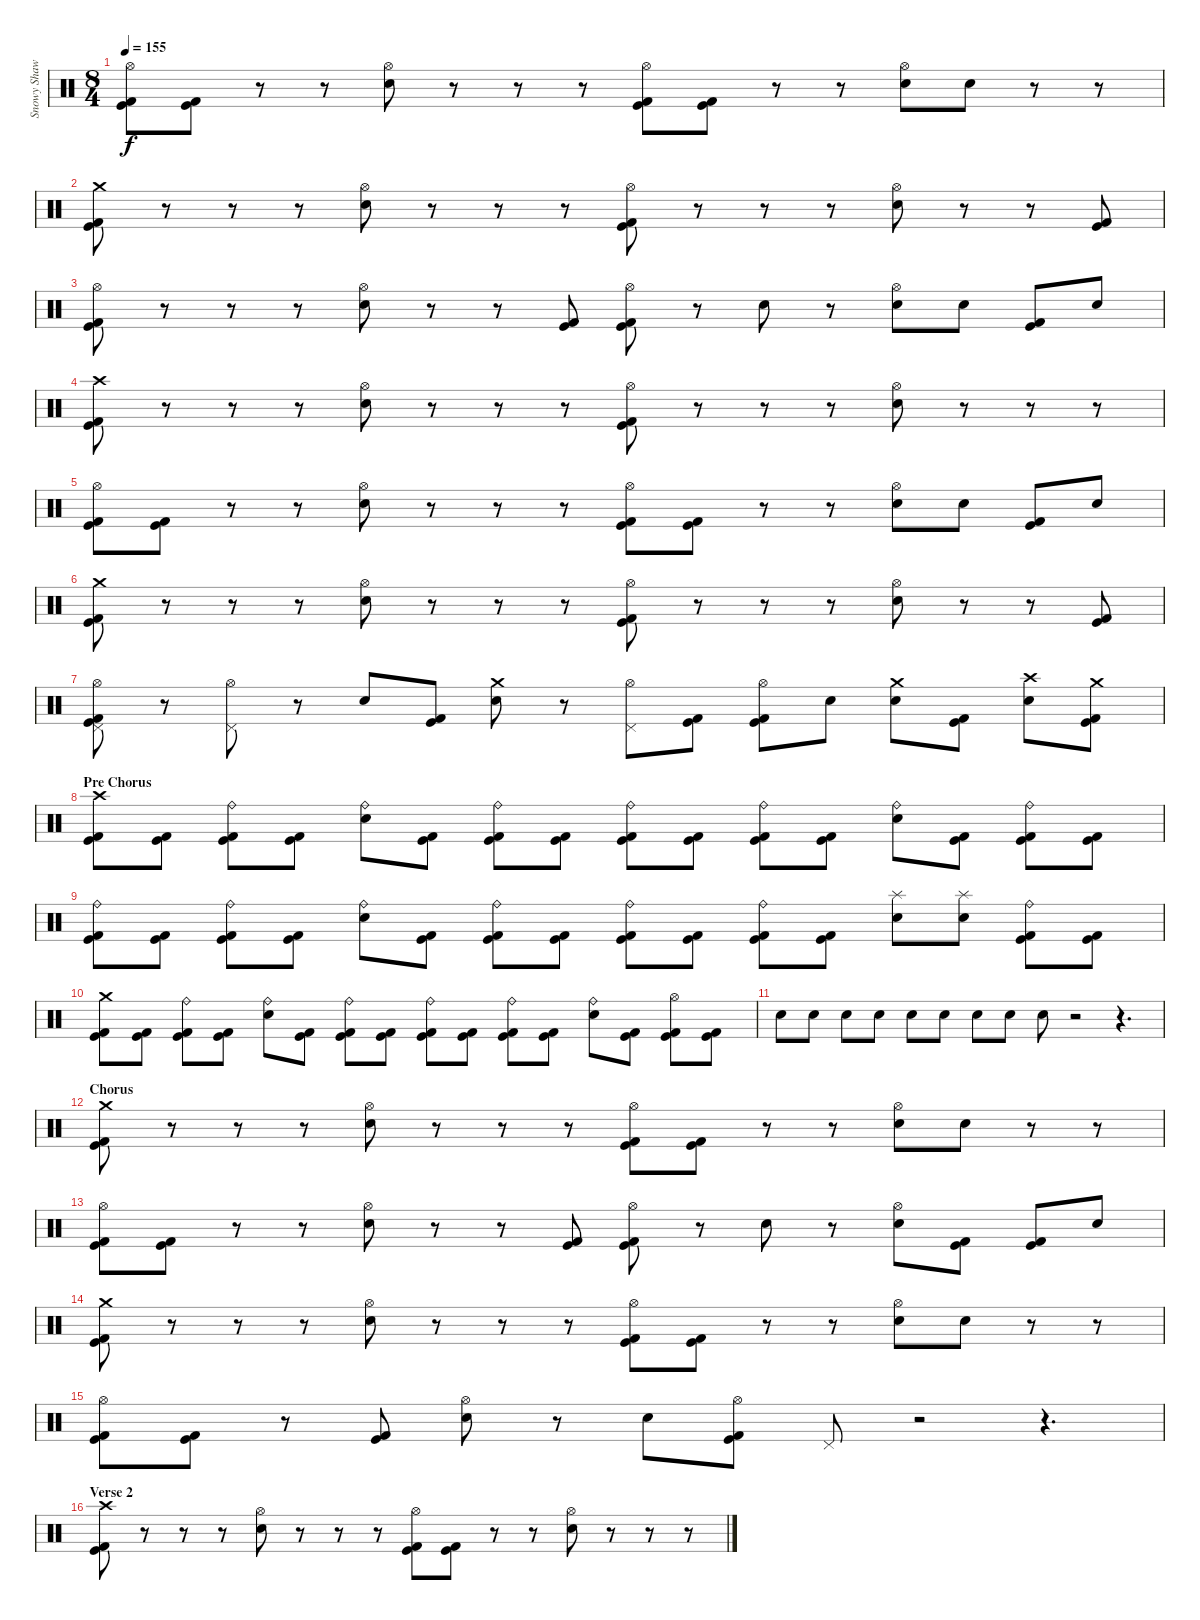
\track ("Snowy Shaw" "Snowy Shaw") {instrument percussion}
\staff {score}
\articulation defaults
\ts (8 4)
\tempo 155
\clef neutral
\ks c
("Hi-Hat (open)" "Kick (hit)" "Kick (hit) 2").8{dy f} ("Kick (hit) 2" "Kick (hit)").8 r.8 r.8 ("Hi-Hat (open)" "Electric Snare (hit)").8 r.8 r.8 r.8 ("Hi-Hat (open)" "Kick (hit) 2" "Kick (hit)").8 ("Kick (hit) 2" "Kick (hit)").8 r.8 r.8 ("Hi-Hat (open)" "Electric Snare (hit)").8 "Electric Snare (hit)".8 r.8 r.8 |
("Crash medium (hit)" "Kick (hit)" "Kick (hit) 2").8 r.8 r.8 r.8 ("Hi-Hat (open)" "Electric Snare (hit)").8 r.8 r.8 r.8 ("Hi-Hat (open)" "Kick (hit) 2" "Kick (hit)").8 r.8 r.8 r.8 ("Hi-Hat (open)" "Electric Snare (hit)").8 r.8 r.8 ("Kick (hit) 2" "Kick (hit)").8 |
("Hi-Hat (open)" "Kick (hit)" "Kick (hit) 2").8 r.8 r.8 r.8 ("Hi-Hat (open)" "Electric Snare (hit)").8 r.8 r.8 ("Kick (hit) 2" "Kick (hit)").8 ("Hi-Hat (open)" "Kick (hit) 2" "Kick (hit)").8 r.8 "Electric Snare (hit)".8 r.8 ("Hi-Hat (open)" "Electric Snare (hit)").8 "Electric Snare (hit)".8 ("Kick (hit) 2" "Kick (hit)").8 "Electric Snare (hit)".8 |
("Crash high (hit)" "Kick (hit)" "Kick (hit) 2").8 r.8 r.8 r.8 ("Hi-Hat (open)" "Electric Snare (hit)").8 r.8 r.8 r.8 ("Hi-Hat (open)" "Kick (hit) 2" "Kick (hit)").8 r.8 r.8 r.8 ("Hi-Hat (open)" "Electric Snare (hit)").8 r.8 r.8 r.8 |
("Hi-Hat (open)" "Kick (hit)" "Kick (hit) 2").8 ("Kick (hit) 2" "Kick (hit)").8 r.8 r.8 ("Hi-Hat (open)" "Electric Snare (hit)").8 r.8 r.8 r.8 ("Hi-Hat (open)" "Kick (hit) 2" "Kick (hit)").8 ("Kick (hit) 2" "Kick (hit)").8 r.8 r.8 ("Hi-Hat (open)" "Electric Snare (hit)").8 "Electric Snare (hit)".8 ("Kick (hit) 2" "Kick (hit)").8 "Electric Snare (hit)".8 |
("Crash medium (hit)" "Kick (hit)" "Kick (hit) 2").8 r.8 r.8 r.8 ("Hi-Hat (open)" "Electric Snare (hit)").8 r.8 r.8 r.8 ("Hi-Hat (open)" "Kick (hit) 2" "Kick (hit)").8 r.8 r.8 r.8 ("Hi-Hat (open)" "Electric Snare (hit)").8 r.8 r.8 ("Kick (hit) 2" "Kick (hit)").8 |
("Hi-Hat (open)" "Pedal Hi-Hat (hit)" "Kick (hit)" "Kick (hit) 2").8 r.8 ("Hi-Hat (open)" "Pedal Hi-Hat (hit)").8 r.8 "Electric Snare (hit)".8 ("Kick (hit) 2" "Kick (hit)").8 ("Crash medium (hit)" "Electric Snare (hit)").8 r.8 ("Hi-Hat (open)" "Pedal Hi-Hat (hit)").8 ("Kick (hit) 2" "Kick (hit)").8 ("Hi-Hat (open)" "Kick (hit) 2" "Kick (hit)").8 "Electric Snare (hit)".8 ("Crash medium (hit)" "Electric Snare (hit)").8 ("Kick (hit) 2" "Kick (hit)").8 ("Crash high (hit)" "Electric Snare (hit)").8 ("Crash medium (hit)" "Kick (hit) 2" "Kick (hit)").8 |
\section ("" "Pre Chorus")
("Crash high (hit)" "Kick (hit) 2" "Kick (hit)").8 ("Kick (hit) 2" "Kick (hit)").8 ("Ride (bell)" "Kick (hit) 2" "Kick (hit)").8 ("Kick (hit) 2" "Kick (hit)").8 ("Ride (bell)" "Electric Snare (hit)").8 ("Kick (hit) 2" "Kick (hit)").8 ("Ride (bell)" "Kick (hit) 2" "Kick (hit)").8 ("Kick (hit) 2" "Kick (hit)").8 ("Ride (bell)" "Kick (hit) 2" "Kick (hit)").8 ("Kick (hit) 2" "Kick (hit)").8 ("Ride (bell)" "Kick (hit) 2" "Kick (hit)").8 ("Kick (hit) 2" "Kick (hit)").8 ("Ride (bell)" "Electric Snare (hit)").8 ("Kick (hit) 2" "Kick (hit)").8 ("Ride (bell)" "Kick (hit) 2" "Kick (hit)").8 ("Kick (hit) 2" "Kick (hit)").8 |
("Ride (bell)" "Kick (hit) 2" "Kick (hit)").8 ("Kick (hit) 2" "Kick (hit)").8 ("Ride (bell)" "Kick (hit) 2" "Kick (hit)").8 ("Kick (hit) 2" "Kick (hit)").8 ("Ride (bell)" "Electric Snare (hit)").8 ("Kick (hit) 2" "Kick (hit)").8 ("Ride (bell)" "Kick (hit) 2" "Kick (hit)").8 ("Kick (hit) 2" "Kick (hit)").8 ("Ride (bell)" "Kick (hit) 2" "Kick (hit)").8 ("Kick (hit) 2" "Kick (hit)").8 ("Ride (bell)" "Kick (hit) 2" "Kick (hit)").8 ("Kick (hit) 2" "Kick (hit)").8 ("Splash (hit)" "Electric Snare (hit)").8 ("Splash (hit)" "Electric Snare (hit)").8 ("Ride (bell)" "Kick (hit) 2" "Kick (hit)").8 ("Kick (hit) 2" "Kick (hit)").8 |
("Crash medium (hit)" "Kick (hit) 2" "Kick (hit)").8 ("Kick (hit) 2" "Kick (hit)").8 ("Ride (bell)" "Kick (hit) 2" "Kick (hit)").8 ("Kick (hit) 2" "Kick (hit)").8 ("Ride (bell)" "Electric Snare (hit)").8 ("Kick (hit) 2" "Kick (hit)").8 ("Ride (bell)" "Kick (hit) 2" "Kick (hit)").8 ("Kick (hit) 2" "Kick (hit)").8 ("Ride (bell)" "Kick (hit) 2" "Kick (hit)").8 ("Kick (hit) 2" "Kick (hit)").8 ("Ride (bell)" "Kick (hit) 2" "Kick (hit)").8 ("Kick (hit) 2" "Kick (hit)").8 ("Ride (bell)" "Electric Snare (hit)").8 ("Kick (hit) 2" "Kick (hit)").8 ("Hi-Hat (open)" "Kick (hit) 2" "Kick (hit)").8 ("Kick (hit) 2" "Kick (hit)").8 |
"Electric Snare (hit)".8 "Electric Snare (hit)".8 "Electric Snare (hit)".8 "Electric Snare (hit)".8 "Electric Snare (hit)".8 "Electric Snare (hit)".8 "Electric Snare (hit)".8 "Electric Snare (hit)".8 "Electric Snare (hit)".8 r.2 r.4{d} |
\section ("" "Chorus")
("Crash medium (hit)" "Kick (hit)" "Kick (hit) 2").8 r.8 r.8 r.8 ("Hi-Hat (open)" "Electric Snare (hit)").8 r.8 r.8 r.8 ("Hi-Hat (open)" "Kick (hit) 2" "Kick (hit)").8 ("Kick (hit) 2" "Kick (hit)").8 r.8 r.8 ("Hi-Hat (open)" "Electric Snare (hit)").8 "Electric Snare (hit)".8 r.8 r.8 |
("Hi-Hat (open)" "Kick (hit)" "Kick (hit) 2").8 ("Kick (hit) 2" "Kick (hit)").8 r.8 r.8 ("Hi-Hat (open)" "Electric Snare (hit)").8 r.8 r.8 ("Kick (hit) 2" "Kick (hit)").8 ("Hi-Hat (open)" "Kick (hit) 2" "Kick (hit)").8 r.8 "Electric Snare (hit)".8 r.8 ("Hi-Hat (open)" "Electric Snare (hit)").8 ("Kick (hit) 2" "Kick (hit)").8 ("Kick (hit) 2" "Kick (hit)").8 "Electric Snare (hit)".8 |
("Crash medium (hit)" "Kick (hit)" "Kick (hit) 2").8 r.8 r.8 r.8 ("Hi-Hat (open)" "Electric Snare (hit)").8 r.8 r.8 r.8 ("Hi-Hat (open)" "Kick (hit) 2" "Kick (hit)").8 ("Kick (hit) 2" "Kick (hit)").8 r.8 r.8 ("Hi-Hat (open)" "Electric Snare (hit)").8 "Electric Snare (hit)".8 r.8 r.8 |
("Hi-Hat (open)" "Kick (hit)" "Kick (hit) 2").8 ("Kick (hit) 2" "Kick (hit)").8 r.8 ("Kick (hit) 2" "Kick (hit)").8 ("Hi-Hat (open)" "Electric Snare (hit)").8 r.8 "Electric Snare (hit)".8 ("Hi-Hat (open)" "Kick (hit) 2" "Kick (hit)").8 "Pedal Hi-Hat (hit)".8 r.2 r.4{d} |
\section ("" "Verse 2")
("Crash high (hit)" "Kick (hit)" "Kick (hit) 2").8 r.8 r.8 r.8 ("Hi-Hat (open)" "Electric Snare (hit)").8 r.8 r.8 r.8 ("Hi-Hat (open)" "Kick (hit) 2" "Kick (hit)").8 ("Kick (hit) 2" "Kick (hit)").8 r.8 r.8 ("Hi-Hat (open)" "Electric Snare (hit)").8 r.8 r.8 r.8
